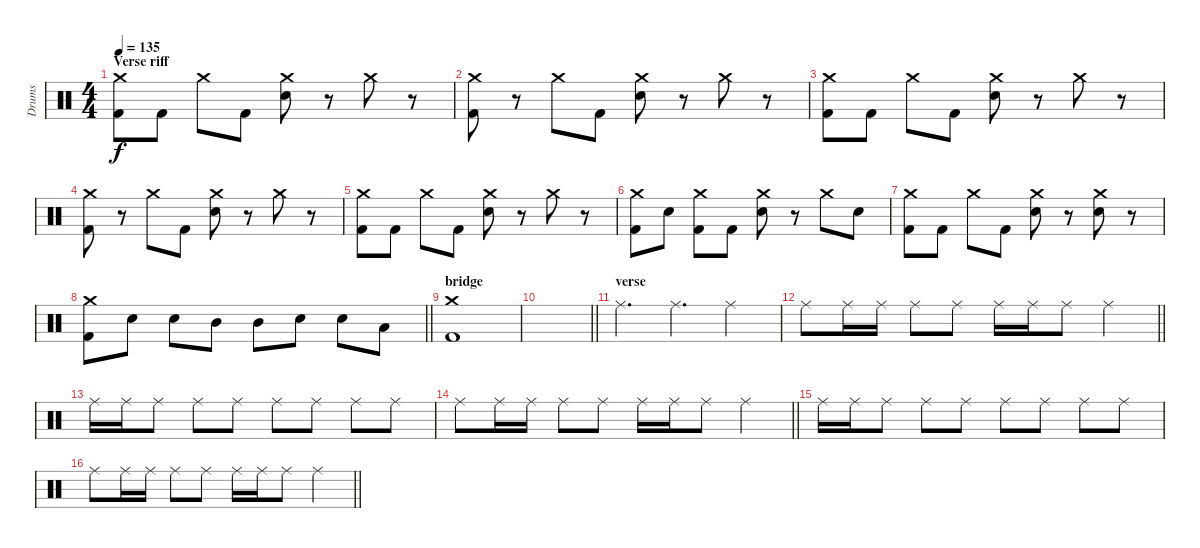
\track ("Drums" "Drums") {instrument percussion}
\staff {score}
\articulation defaults
\ts (4 4)
\section ("" "Verse riff")
\tempo 135
\clef neutral
\ks c
("Crash medium (hit)" "Kick (hit) 2").8{dy f} "Kick (hit) 2".8 "Crash medium (hit)".8 "Kick (hit) 2".8 ("Crash medium (hit)" "Electric Snare (hit)").8 r.8 "Crash medium (hit)".8 r.8 |
("Kick (hit) 2" "Crash medium (hit)").8 r.8 "Crash medium (hit)".8 "Kick (hit) 2".8 ("Electric Snare (hit)" "Crash medium (hit)").8 r.8 "Crash medium (hit)".8 r.8 |
("Crash medium (hit)" "Kick (hit) 2").8 "Kick (hit) 2".8 "Crash medium (hit)".8 "Kick (hit) 2".8 ("Crash medium (hit)" "Electric Snare (hit)").8 r.8 "Crash medium (hit)".8 r.8 |
("Kick (hit) 2" "Crash medium (hit)").8 r.8 "Crash medium (hit)".8 "Kick (hit) 2".8 ("Electric Snare (hit)" "Crash medium (hit)").8 r.8 "Crash medium (hit)".8 r.8 |
("Crash medium (hit)" "Kick (hit) 2").8 "Kick (hit) 2".8 "Crash medium (hit)".8 "Kick (hit) 2".8 ("Crash medium (hit)" "Electric Snare (hit)").8 r.8 "Crash medium (hit)".8 r.8 |
("Kick (hit) 2" "Crash medium (hit)").8 "Electric Snare (hit)".8 ("Crash medium (hit)" "Kick (hit) 2").8 "Kick (hit) 2".8 ("Electric Snare (hit)" "Crash medium (hit)").8 r.8 "Crash medium (hit)".8 "Electric Snare (hit)".8 |
("Crash medium (hit)" "Kick (hit) 2").8 "Kick (hit) 2".8 "Crash medium (hit)".8 "Kick (hit) 2".8 ("Crash medium (hit)" "Electric Snare (hit)").8 r.8 ("Crash medium (hit)" "Electric Snare (hit)").8 r.8 |
\barLineRight lightlight
("Kick (hit) 2" "Crash medium (hit)").8 "Electric Snare (hit)".8 "Electric Snare (hit)".8 "Mid Tom (hit)".8 "Mid Tom (hit)".8 "Electric Snare (hit)".8 "Electric Snare (hit)".8 "Low Tom (hit)".8 |
\section ("" "bridge")
("Crash medium (hit)" "Kick (hit) 2").1 |
\barLineRight lightlight
|
\section ("" "verse")
"Ride (middle)".4{d} "Ride (middle)".4{d} "Ride (middle)".4 |
\barLineRight lightlight "Ride (middle)".8 "Ride (middle)".16 "Ride (middle)".16 "Ride (middle)".8 "Ride (middle)".8 "Ride (middle)".16 "Ride (middle)".16 "Ride (middle)".8 "Ride (middle)".4
|
"Ride (middle)".16 "Ride (middle)".16 "Ride (middle)".8 "Ride (middle)".8 "Ride (middle)".8 "Ride (middle)".8 "Ride (middle)".8 "Ride (middle)".8 "Ride (middle)".8 |
\barLineRight lightlight "Ride (middle)".8 "Ride (middle)".16 "Ride (middle)".16 "Ride (middle)".8 "Ride (middle)".8 "Ride (middle)".16 "Ride (middle)".16 "Ride (middle)".8 "Ride (middle)".4
|
\section ("" "")
"Ride (middle)".16 "Ride (middle)".16 "Ride (middle)".8 "Ride (middle)".8 "Ride (middle)".8 "Ride (middle)".8 "Ride (middle)".8 "Ride (middle)".8 "Ride (middle)".8 |
\barLineRight lightlight "Ride (middle)".8 "Ride (middle)".16 "Ride (middle)".16 "Ride (middle)".8 "Ride (middle)".8 "Ride (middle)".16 "Ride (middle)".16 "Ride (middle)".8 "Ride (middle)".4
